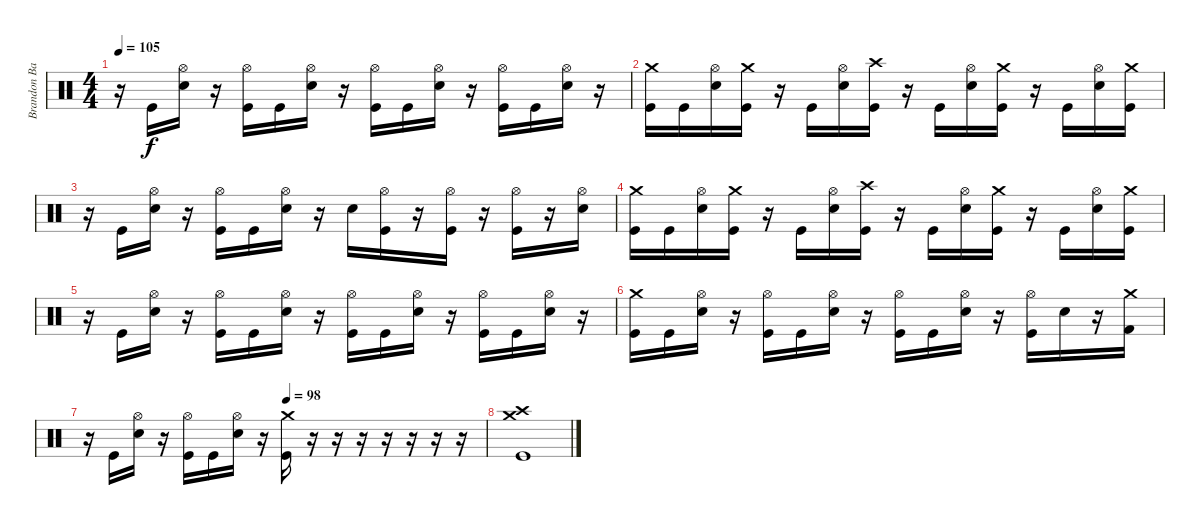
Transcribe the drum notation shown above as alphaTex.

\track ("Brandon Barnes" "Brandon Ba") {instrument percussion}
\staff {score}
\articulation defaults
\ts (4 4)
\tempo 105
\clef neutral
\ks c
r.16{dy f} "Kick (hit)".16 ("Hi-Hat (open)" "Electric Snare (hit)").16 r.16 ("Hi-Hat (open)" "Kick (hit)").16 "Kick (hit)".16 ("Hi-Hat (open)" "Electric Snare (hit)").16 r.16 ("Hi-Hat (open)" "Kick (hit)").16 "Kick (hit)".16 ("Hi-Hat (open)" "Electric Snare (hit)").16 r.16 ("Hi-Hat (open)" "Kick (hit)").16 "Kick (hit)".16 ("Hi-Hat (open)" "Electric Snare (hit)").16 r.16 |
("Crash medium (hit)" "Kick (hit)").16 "Kick (hit)".16 ("Hi-Hat (open)" "Electric Snare (hit)").16 ("Crash medium (hit)" "Kick (hit)").16 r.16 "Kick (hit)".16 ("Hi-Hat (open)" "Electric Snare (hit)").16 ("Crash high (hit)" "Kick (hit)").16 r.16 "Kick (hit)".16 ("Hi-Hat (open)" "Electric Snare (hit)").16 ("Crash medium (hit)" "Kick (hit)").16 r.16 "Kick (hit)".16 ("Hi-Hat (open)" "Electric Snare (hit)").16 ("Crash medium (hit)" "Kick (hit)").16 |
r.16 "Kick (hit)".16 ("Hi-Hat (open)" "Electric Snare (hit)").16 r.16 ("Hi-Hat (open)" "Kick (hit)").16 "Kick (hit)".16 ("Hi-Hat (open)" "Electric Snare (hit)").16 r.16 "Electric Snare (hit)".16 ("Hi-Hat (open)" "Kick (hit)").16 r.16 ("Hi-Hat (open)" "Kick (hit)").16 r.16 ("Hi-Hat (open)" "Kick (hit)").16 r.16 ("Hi-Hat (open)" "Electric Snare (hit)").16 |
("Crash medium (hit)" "Kick (hit)").16 "Kick (hit)".16 ("Hi-Hat (open)" "Electric Snare (hit)").16 ("Crash medium (hit)" "Kick (hit)").16 r.16 "Kick (hit)".16 ("Hi-Hat (open)" "Electric Snare (hit)").16 ("Crash high (hit)" "Kick (hit)").16 r.16 "Kick (hit)".16 ("Hi-Hat (open)" "Electric Snare (hit)").16 ("Crash medium (hit)" "Kick (hit)").16 r.16 "Kick (hit)".16 ("Hi-Hat (open)" "Electric Snare (hit)").16 ("Crash medium (hit)" "Kick (hit)").16 |
r.16 "Kick (hit)".16 ("Hi-Hat (open)" "Electric Snare (hit)").16 r.16 ("Hi-Hat (open)" "Kick (hit)").16 "Kick (hit)".16 ("Hi-Hat (open)" "Electric Snare (hit)").16 r.16 ("Hi-Hat (open)" "Kick (hit)").16 "Kick (hit)".16 ("Hi-Hat (open)" "Electric Snare (hit)").16 r.16 ("Hi-Hat (open)" "Kick (hit)").16 "Kick (hit)".16 ("Hi-Hat (open)" "Electric Snare (hit)").16 r.16 |
("Crash medium (hit)" "Kick (hit)").16 "Kick (hit)".16 ("Hi-Hat (open)" "Electric Snare (hit)").16 r.16 ("Hi-Hat (open)" "Kick (hit)").16 "Kick (hit)".16 ("Hi-Hat (open)" "Electric Snare (hit)").16 r.16 ("Hi-Hat (open)" "Kick (hit)").16 "Kick (hit)".16 ("Hi-Hat (open)" "Electric Snare (hit)").16 r.16 ("Hi-Hat (open)" "Kick (hit)").16 "Electric Snare (hit)".16 r.16 ("Crash medium (hit)" "Kick (hit) 2").16 |
\tempo (98 0.5)
r.16 "Kick (hit)".16 ("Hi-Hat (open)" "Electric Snare (hit)").16 r.16 ("Hi-Hat (open)" "Kick (hit)").16 "Kick (hit)".16 ("Hi-Hat (open)" "Electric Snare (hit)").16 r.16 ("Crash medium (hit)" "Kick (hit)").16 r.16 r.16 r.16 r.16 r.16 r.16 r.16 |
("Crash medium (hit)" "Crash high (hit)" "Kick (hit)").1
